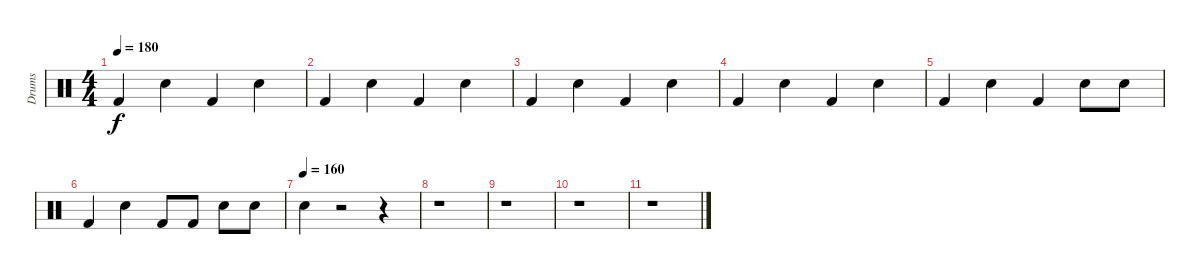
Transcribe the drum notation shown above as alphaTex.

\track ("Drums" "Drums") {instrument percussion}
\staff {score}
\articulation defaults
\ts (4 4)
\tempo 180
\clef neutral
\ks c "Kick (hit) 2".4{dy f} "Snare (hit) 2".4 "Kick (hit) 2".4 "Snare (hit) 2".4
|
"Kick (hit) 2".4 "Snare (hit) 2".4 "Kick (hit) 2".4 "Snare (hit) 2".4 |
"Kick (hit) 2".4 "Snare (hit) 2".4 "Kick (hit) 2".4 "Snare (hit) 2".4 |
"Kick (hit) 2".4 "Snare (hit) 2".4 "Kick (hit) 2".4 "Snare (hit) 2".4 |
"Kick (hit) 2".4 "Snare (hit) 2".4 "Kick (hit) 2".4 "Snare (hit) 2".8 "Snare (hit) 2".8 |
"Kick (hit) 2".4 "Snare (hit) 2".4 "Kick (hit) 2".8 "Kick (hit) 2".8 "Snare (hit) 2".8 "Snare (hit) 2".8 |
\tempo (160)
"Snare (hit) 2".4 r.2 r.4 |
r.1 |
r.1 |
r.1 |
r.1
